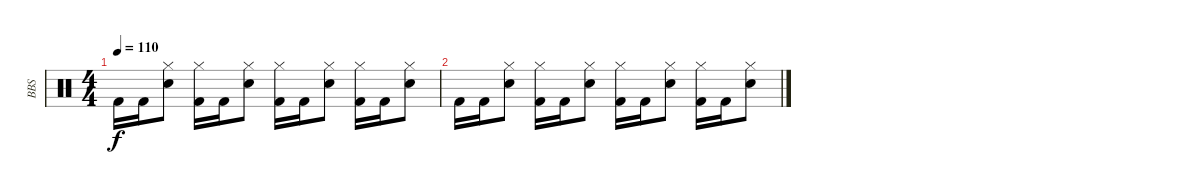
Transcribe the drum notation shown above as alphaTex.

\track ("BBS" "BBS") {instrument percussion}
\staff {score}
\articulation defaults
\ts (4 4)
\tempo 110
\clef neutral
\ks c "Kick (hit) 2".16{dy f} "Kick (hit) 2".16
("Hi-Hat (closed)" "Snare (hit) 2").8 ("Hi-Hat (closed)" "Kick (hit) 2").16 "Kick (hit) 2".16 ("Hi-Hat (closed)" "Snare (hit) 2").8 ("Hi-Hat (closed)" "Kick (hit) 2").16 "Kick (hit) 2".16 ("Hi-Hat (closed)" "Snare (hit) 2").8 ("Hi-Hat (closed)" "Kick (hit) 2").16 "Kick (hit) 2".16 ("Hi-Hat (closed)" "Snare (hit) 2").8 |
"Kick (hit) 2".16 "Kick (hit) 2".16 ("Hi-Hat (closed)" "Snare (hit) 2").8 ("Hi-Hat (closed)" "Kick (hit) 2").16 "Kick (hit) 2".16 ("Hi-Hat (closed)" "Snare (hit) 2").8 ("Hi-Hat (closed)" "Kick (hit) 2").16 "Kick (hit) 2".16 ("Hi-Hat (closed)" "Snare (hit) 2").8 ("Hi-Hat (closed)" "Kick (hit) 2").16 "Kick (hit) 2".16 ("Hi-Hat (closed)" "Snare (hit) 2").8
